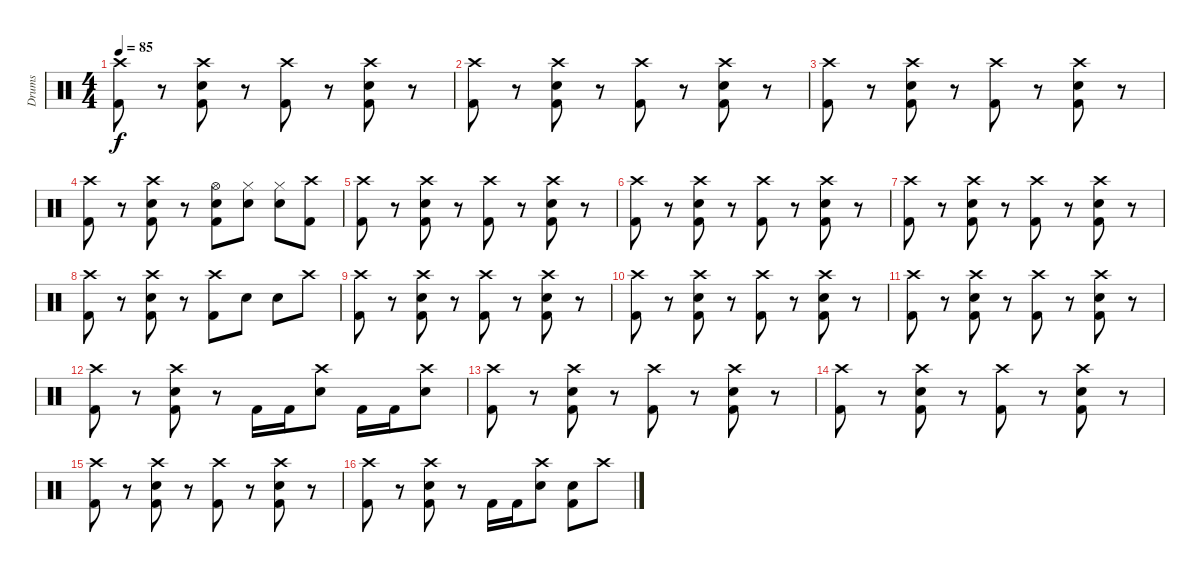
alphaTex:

\track ("Drums" "Drums") {instrument percussion}
\staff {score}
\articulation defaults
\ts (4 4)
\tempo 85
\clef neutral
\ks c
("Crash high (hit)" "Kick (hit) 2").8{dy f} r.8 ("Crash high (hit)" "Electric Snare (hit)" "Kick (hit) 2").8 r.8 ("Crash high (hit)" "Kick (hit) 2").8 r.8 ("Crash high (hit)" "Electric Snare (hit)" "Kick (hit) 2").8 r.8 |
("Crash high (hit)" "Kick (hit) 2").8 r.8 ("Crash high (hit)" "Electric Snare (hit)" "Kick (hit) 2").8 r.8 ("Crash high (hit)" "Kick (hit) 2").8 r.8 ("Crash high (hit)" "Electric Snare (hit)" "Kick (hit) 2").8 r.8 |
("Crash high (hit)" "Kick (hit) 2").8 r.8 ("Crash high (hit)" "Electric Snare (hit)" "Kick (hit) 2").8 r.8 ("Crash high (hit)" "Kick (hit) 2").8 r.8 ("Crash high (hit)" "Electric Snare (hit)" "Kick (hit) 2").8 r.8 |
("Crash high (hit)" "Kick (hit) 2").8 r.8 ("Crash high (hit)" "Electric Snare (hit)" "Kick (hit) 2").8 r.8 ("Hi-Hat (open)" "Electric Snare (hit)" "Kick (hit) 2").8 ("Hi-Hat (closed)" "Electric Snare (hit)").8 ("Hi-Hat (closed)" "Electric Snare (hit)").8 ("Crash high (hit)" "Kick (hit) 2").8 |
("Crash high (hit)" "Kick (hit) 2").8 r.8 ("Crash high (hit)" "Electric Snare (hit)" "Kick (hit) 2").8 r.8 ("Crash high (hit)" "Kick (hit) 2").8 r.8 ("Crash high (hit)" "Electric Snare (hit)" "Kick (hit) 2").8 r.8 |
("Crash high (hit)" "Kick (hit) 2").8 r.8 ("Crash high (hit)" "Electric Snare (hit)" "Kick (hit) 2").8 r.8 ("Crash high (hit)" "Kick (hit) 2").8 r.8 ("Crash high (hit)" "Electric Snare (hit)" "Kick (hit) 2").8 r.8 |
("Crash high (hit)" "Kick (hit) 2").8 r.8 ("Crash high (hit)" "Electric Snare (hit)" "Kick (hit) 2").8 r.8 ("Crash high (hit)" "Kick (hit) 2").8 r.8 ("Crash high (hit)" "Electric Snare (hit)" "Kick (hit) 2").8 r.8 |
("Crash high (hit)" "Kick (hit) 2").8 r.8 ("Crash high (hit)" "Electric Snare (hit)" "Kick (hit) 2").8 r.8 ("Crash high (hit)" "Kick (hit) 2").8 "Electric Snare (hit)".8 "Electric Snare (hit)".8 "Crash high (hit)".8 |
("Crash high (hit)" "Kick (hit) 2").8 r.8 ("Crash high (hit)" "Electric Snare (hit)" "Kick (hit) 2").8 r.8 ("Crash high (hit)" "Kick (hit) 2").8 r.8 ("Crash high (hit)" "Electric Snare (hit)" "Kick (hit) 2").8 r.8 |
("Crash high (hit)" "Kick (hit) 2").8 r.8 ("Crash high (hit)" "Electric Snare (hit)" "Kick (hit) 2").8 r.8 ("Crash high (hit)" "Kick (hit) 2").8 r.8 ("Crash high (hit)" "Electric Snare (hit)" "Kick (hit) 2").8 r.8 |
("Crash high (hit)" "Kick (hit) 2").8 r.8 ("Crash high (hit)" "Electric Snare (hit)" "Kick (hit) 2").8 r.8 ("Crash high (hit)" "Kick (hit) 2").8 r.8 ("Crash high (hit)" "Electric Snare (hit)" "Kick (hit) 2").8 r.8 |
("Crash high (hit)" "Kick (hit) 2").8 r.8 ("Crash high (hit)" "Electric Snare (hit)" "Kick (hit) 2").8 r.8 "Kick (hit) 2".16 "Kick (hit) 2".16 ("Crash high (hit)" "Electric Snare (hit)").8 "Kick (hit) 2".16 "Kick (hit) 2".16 ("Crash high (hit)" "Electric Snare (hit)").8 |
("Crash high (hit)" "Kick (hit) 2").8 r.8 ("Crash high (hit)" "Electric Snare (hit)" "Kick (hit) 2").8 r.8 ("Crash high (hit)" "Kick (hit) 2").8 r.8 ("Crash high (hit)" "Electric Snare (hit)" "Kick (hit) 2").8 r.8 |
("Crash high (hit)" "Kick (hit) 2").8 r.8 ("Crash high (hit)" "Electric Snare (hit)" "Kick (hit) 2").8 r.8 ("Crash high (hit)" "Kick (hit) 2").8 r.8 ("Crash high (hit)" "Electric Snare (hit)" "Kick (hit) 2").8 r.8 |
("Crash high (hit)" "Kick (hit) 2").8 r.8 ("Crash high (hit)" "Electric Snare (hit)" "Kick (hit) 2").8 r.8 ("Crash high (hit)" "Kick (hit) 2").8 r.8 ("Crash high (hit)" "Electric Snare (hit)" "Kick (hit) 2").8 r.8 |
("Crash high (hit)" "Kick (hit) 2").8 r.8 ("Crash high (hit)" "Electric Snare (hit)" "Kick (hit) 2").8 r.8 "Kick (hit) 2".16 "Kick (hit) 2".16 ("Crash high (hit)" "Electric Snare (hit)").8 ("Electric Snare (hit)" "Kick (hit) 2").8 "Crash high (hit)".8
